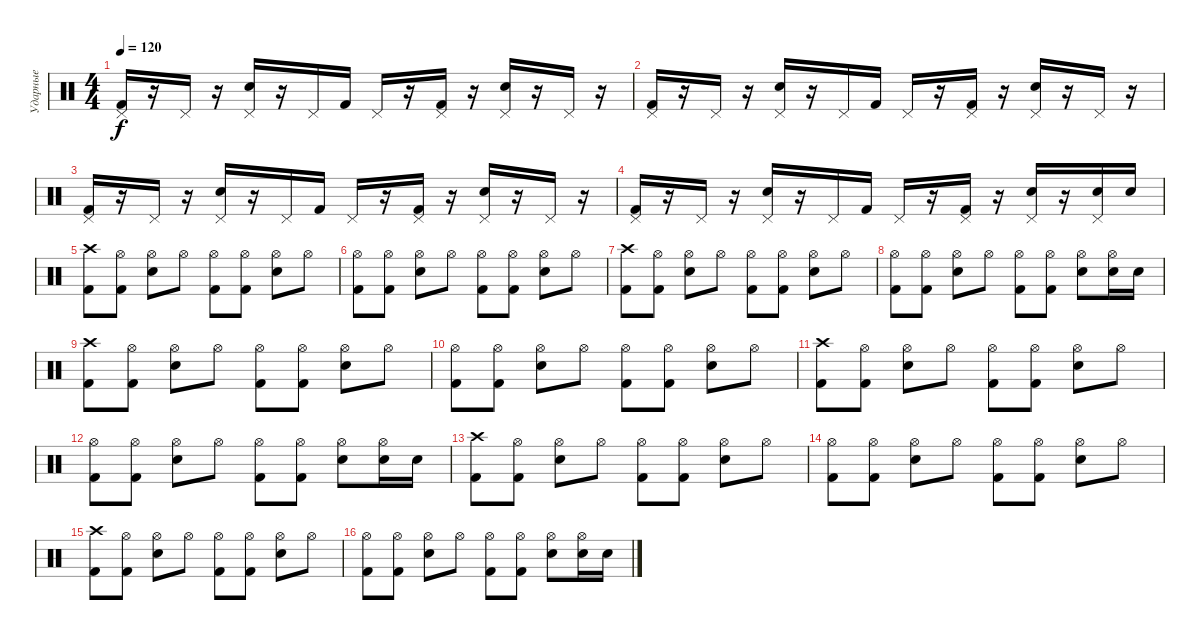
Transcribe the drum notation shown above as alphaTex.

\track ("Ударные" "Ударные") {instrument percussion}
\staff {score}
\articulation defaults
\ts (4 4)
\tempo 120
\clef neutral
\ks c
("Pedal Hi-Hat (hit)" "Kick (hit) 2").16{dy f} r.16 "Pedal Hi-Hat (hit)".16 r.16 ("Pedal Hi-Hat (hit)" "Electric Snare (hit)").16 r.16 "Pedal Hi-Hat (hit)".16 "Kick (hit) 2".16 "Pedal Hi-Hat (hit)".16 r.16 ("Pedal Hi-Hat (hit)" "Kick (hit) 2").16 r.16 ("Pedal Hi-Hat (hit)" "Electric Snare (hit)").16 r.16 "Pedal Hi-Hat (hit)".16 r.16 |
("Pedal Hi-Hat (hit)" "Kick (hit) 2").16 r.16 "Pedal Hi-Hat (hit)".16 r.16 ("Pedal Hi-Hat (hit)" "Electric Snare (hit)").16 r.16 "Pedal Hi-Hat (hit)".16 "Kick (hit) 2".16 "Pedal Hi-Hat (hit)".16 r.16 ("Pedal Hi-Hat (hit)" "Kick (hit) 2").16 r.16 ("Pedal Hi-Hat (hit)" "Electric Snare (hit)").16 r.16 "Pedal Hi-Hat (hit)".16 r.16 |
("Pedal Hi-Hat (hit)" "Kick (hit) 2").16 r.16 "Pedal Hi-Hat (hit)".16 r.16 ("Pedal Hi-Hat (hit)" "Electric Snare (hit)").16 r.16 "Pedal Hi-Hat (hit)".16 "Kick (hit) 2".16 "Pedal Hi-Hat (hit)".16 r.16 ("Pedal Hi-Hat (hit)" "Kick (hit) 2").16 r.16 ("Pedal Hi-Hat (hit)" "Electric Snare (hit)").16 r.16 "Pedal Hi-Hat (hit)".16 r.16 |
("Pedal Hi-Hat (hit)" "Kick (hit) 2").16 r.16 "Pedal Hi-Hat (hit)".16 r.16 ("Pedal Hi-Hat (hit)" "Electric Snare (hit)").16 r.16 "Pedal Hi-Hat (hit)".16 "Kick (hit) 2".16 "Pedal Hi-Hat (hit)".16 r.16 ("Pedal Hi-Hat (hit)" "Kick (hit) 2").16 r.16 ("Pedal Hi-Hat (hit)" "Electric Snare (hit)").16 r.16 ("Pedal Hi-Hat (hit)" "Electric Snare (hit)").16 "Electric Snare (hit)".16 |
("Crash high (hit)" "Kick (hit) 2").8 ("Hi-Hat (open)" "Kick (hit) 2").8 ("Hi-Hat (open)" "Electric Snare (hit)").8 "Hi-Hat (open)".8 ("Hi-Hat (open)" "Kick (hit) 2").8 ("Hi-Hat (open)" "Kick (hit) 2").8 ("Hi-Hat (open)" "Electric Snare (hit)").8 "Hi-Hat (open)".8 |
("Hi-Hat (open)" "Kick (hit) 2").8 ("Hi-Hat (open)" "Kick (hit) 2").8 ("Hi-Hat (open)" "Electric Snare (hit)").8 "Hi-Hat (open)".8 ("Hi-Hat (open)" "Kick (hit) 2").8 ("Hi-Hat (open)" "Kick (hit) 2").8 ("Hi-Hat (open)" "Electric Snare (hit)").8 "Hi-Hat (open)".8 |
("Crash high (hit)" "Kick (hit) 2").8 ("Hi-Hat (open)" "Kick (hit) 2").8 ("Hi-Hat (open)" "Electric Snare (hit)").8 "Hi-Hat (open)".8 ("Hi-Hat (open)" "Kick (hit) 2").8 ("Hi-Hat (open)" "Kick (hit) 2").8 ("Hi-Hat (open)" "Electric Snare (hit)").8 "Hi-Hat (open)".8 |
("Hi-Hat (open)" "Kick (hit) 2").8 ("Hi-Hat (open)" "Kick (hit) 2").8 ("Hi-Hat (open)" "Electric Snare (hit)").8 "Hi-Hat (open)".8 ("Hi-Hat (open)" "Kick (hit) 2").8 ("Hi-Hat (open)" "Kick (hit) 2").8 ("Hi-Hat (open)" "Electric Snare (hit)").8 ("Hi-Hat (open)" "Electric Snare (hit)").16 "Electric Snare (hit)".16 |
("Crash high (hit)" "Kick (hit) 2").8 ("Hi-Hat (open)" "Kick (hit) 2").8 ("Hi-Hat (open)" "Electric Snare (hit)").8 "Hi-Hat (open)".8 ("Hi-Hat (open)" "Kick (hit) 2").8 ("Hi-Hat (open)" "Kick (hit) 2").8 ("Hi-Hat (open)" "Electric Snare (hit)").8 "Hi-Hat (open)".8 |
("Hi-Hat (open)" "Kick (hit) 2").8 ("Hi-Hat (open)" "Kick (hit) 2").8 ("Hi-Hat (open)" "Electric Snare (hit)").8 "Hi-Hat (open)".8 ("Hi-Hat (open)" "Kick (hit) 2").8 ("Hi-Hat (open)" "Kick (hit) 2").8 ("Hi-Hat (open)" "Electric Snare (hit)").8 "Hi-Hat (open)".8 |
("Crash high (hit)" "Kick (hit) 2").8 ("Hi-Hat (open)" "Kick (hit) 2").8 ("Hi-Hat (open)" "Electric Snare (hit)").8 "Hi-Hat (open)".8 ("Hi-Hat (open)" "Kick (hit) 2").8 ("Hi-Hat (open)" "Kick (hit) 2").8 ("Hi-Hat (open)" "Electric Snare (hit)").8 "Hi-Hat (open)".8 |
("Hi-Hat (open)" "Kick (hit) 2").8 ("Hi-Hat (open)" "Kick (hit) 2").8 ("Hi-Hat (open)" "Electric Snare (hit)").8 "Hi-Hat (open)".8 ("Hi-Hat (open)" "Kick (hit) 2").8 ("Hi-Hat (open)" "Kick (hit) 2").8 ("Hi-Hat (open)" "Electric Snare (hit)").8 ("Hi-Hat (open)" "Electric Snare (hit)").16 "Electric Snare (hit)".16 |
("Crash high (hit)" "Kick (hit) 2").8 ("Hi-Hat (open)" "Kick (hit) 2").8 ("Hi-Hat (open)" "Electric Snare (hit)").8 "Hi-Hat (open)".8 ("Hi-Hat (open)" "Kick (hit) 2").8 ("Hi-Hat (open)" "Kick (hit) 2").8 ("Hi-Hat (open)" "Electric Snare (hit)").8 "Hi-Hat (open)".8 |
("Hi-Hat (open)" "Kick (hit) 2").8 ("Hi-Hat (open)" "Kick (hit) 2").8 ("Hi-Hat (open)" "Electric Snare (hit)").8 "Hi-Hat (open)".8 ("Hi-Hat (open)" "Kick (hit) 2").8 ("Hi-Hat (open)" "Kick (hit) 2").8 ("Hi-Hat (open)" "Electric Snare (hit)").8 "Hi-Hat (open)".8 |
("Crash high (hit)" "Kick (hit) 2").8 ("Hi-Hat (open)" "Kick (hit) 2").8 ("Hi-Hat (open)" "Electric Snare (hit)").8 "Hi-Hat (open)".8 ("Hi-Hat (open)" "Kick (hit) 2").8 ("Hi-Hat (open)" "Kick (hit) 2").8 ("Hi-Hat (open)" "Electric Snare (hit)").8 "Hi-Hat (open)".8 |
("Hi-Hat (open)" "Kick (hit) 2").8 ("Hi-Hat (open)" "Kick (hit) 2").8 ("Hi-Hat (open)" "Electric Snare (hit)").8 "Hi-Hat (open)".8 ("Hi-Hat (open)" "Kick (hit) 2").8 ("Hi-Hat (open)" "Kick (hit) 2").8 ("Hi-Hat (open)" "Electric Snare (hit)").8 ("Hi-Hat (open)" "Electric Snare (hit)").16 "Electric Snare (hit)".16
